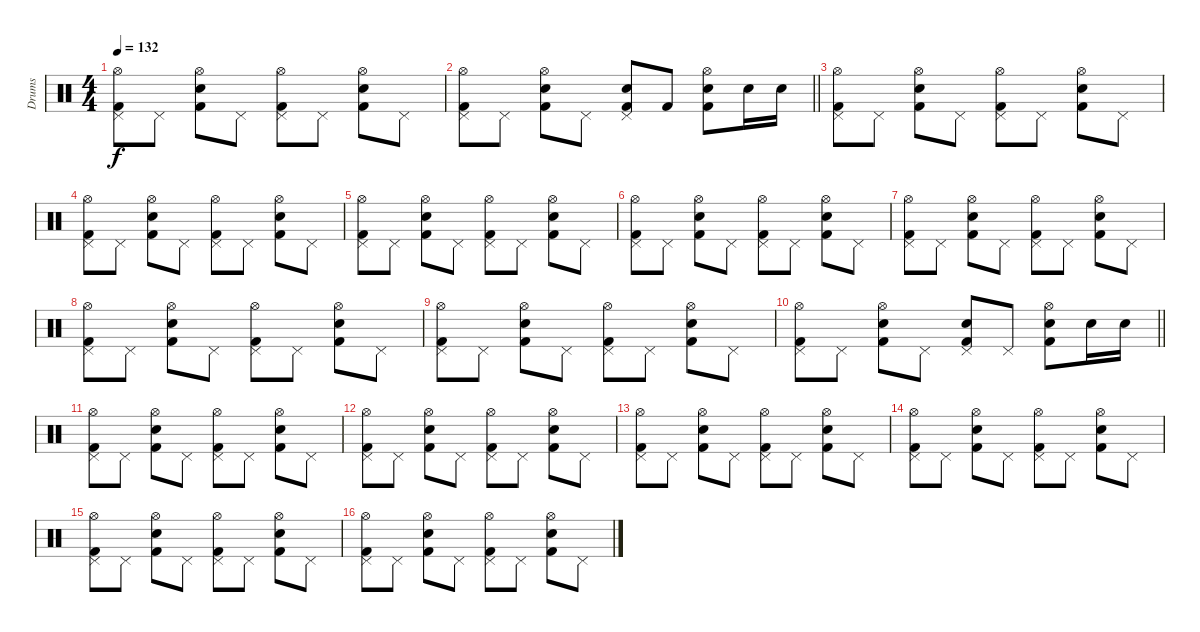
\track ("Drums" "Drums") {instrument percussion}
\staff {score}
\articulation defaults
\ts (4 4)
\tempo 132
\clef neutral
\ks c
("Hi-Hat (open)" "Pedal Hi-Hat (hit)" "Kick (hit) 2").8{dy f} "Pedal Hi-Hat (hit)".8 ("Electric Snare (hit)" "Hi-Hat (open)" "Kick (hit) 2").8 "Pedal Hi-Hat (hit)".8 ("Hi-Hat (open)" "Pedal Hi-Hat (hit)" "Kick (hit) 2").8 "Pedal Hi-Hat (hit)".8 ("Electric Snare (hit)" "Hi-Hat (open)" "Kick (hit) 2").8 "Pedal Hi-Hat (hit)".8 |
\barLineRight lightlight
("Hi-Hat (open)" "Pedal Hi-Hat (hit)" "Kick (hit) 2").8 "Pedal Hi-Hat (hit)".8 ("Electric Snare (hit)" "Hi-Hat (open)" "Kick (hit) 2").8 "Pedal Hi-Hat (hit)".8 ("Electric Snare (hit)" "Pedal Hi-Hat (hit)" "Kick (hit) 2").8 "Kick (hit) 2".8 ("Electric Snare (hit)" "Hi-Hat (open)" "Kick (hit) 2").8 "Electric Snare (hit)".16 "Electric Snare (hit)".16 |
\section ("" "")
("Hi-Hat (open)" "Pedal Hi-Hat (hit)" "Kick (hit) 2").8 "Pedal Hi-Hat (hit)".8 ("Electric Snare (hit)" "Hi-Hat (open)" "Kick (hit) 2").8 "Pedal Hi-Hat (hit)".8 ("Hi-Hat (open)" "Pedal Hi-Hat (hit)" "Kick (hit) 2").8 "Pedal Hi-Hat (hit)".8 ("Electric Snare (hit)" "Hi-Hat (open)" "Kick (hit) 2").8 "Pedal Hi-Hat (hit)".8 |
("Hi-Hat (open)" "Pedal Hi-Hat (hit)" "Kick (hit) 2").8 "Pedal Hi-Hat (hit)".8 ("Electric Snare (hit)" "Hi-Hat (open)" "Kick (hit) 2").8 "Pedal Hi-Hat (hit)".8 ("Hi-Hat (open)" "Pedal Hi-Hat (hit)" "Kick (hit) 2").8 "Pedal Hi-Hat (hit)".8 ("Electric Snare (hit)" "Hi-Hat (open)" "Kick (hit) 2").8 "Pedal Hi-Hat (hit)".8 |
("Hi-Hat (open)" "Pedal Hi-Hat (hit)" "Kick (hit) 2").8 "Pedal Hi-Hat (hit)".8 ("Electric Snare (hit)" "Hi-Hat (open)" "Kick (hit) 2").8 "Pedal Hi-Hat (hit)".8 ("Hi-Hat (open)" "Pedal Hi-Hat (hit)" "Kick (hit) 2").8 "Pedal Hi-Hat (hit)".8 ("Electric Snare (hit)" "Hi-Hat (open)" "Kick (hit) 2").8 "Pedal Hi-Hat (hit)".8 |
("Hi-Hat (open)" "Pedal Hi-Hat (hit)" "Kick (hit) 2").8 "Pedal Hi-Hat (hit)".8 ("Electric Snare (hit)" "Hi-Hat (open)" "Kick (hit) 2").8 "Pedal Hi-Hat (hit)".8 ("Hi-Hat (open)" "Pedal Hi-Hat (hit)" "Kick (hit) 2").8 "Pedal Hi-Hat (hit)".8 ("Electric Snare (hit)" "Hi-Hat (open)" "Kick (hit) 2").8 "Pedal Hi-Hat (hit)".8 |
("Hi-Hat (open)" "Pedal Hi-Hat (hit)" "Kick (hit) 2").8 "Pedal Hi-Hat (hit)".8 ("Electric Snare (hit)" "Hi-Hat (open)" "Kick (hit) 2").8 "Pedal Hi-Hat (hit)".8 ("Hi-Hat (open)" "Pedal Hi-Hat (hit)" "Kick (hit) 2").8 "Pedal Hi-Hat (hit)".8 ("Electric Snare (hit)" "Hi-Hat (open)" "Kick (hit) 2").8 "Pedal Hi-Hat (hit)".8 |
("Hi-Hat (open)" "Pedal Hi-Hat (hit)" "Kick (hit) 2").8 "Pedal Hi-Hat (hit)".8 ("Electric Snare (hit)" "Hi-Hat (open)" "Kick (hit) 2").8 "Pedal Hi-Hat (hit)".8 ("Hi-Hat (open)" "Pedal Hi-Hat (hit)" "Kick (hit) 2").8 "Pedal Hi-Hat (hit)".8 ("Electric Snare (hit)" "Hi-Hat (open)" "Kick (hit) 2").8 "Pedal Hi-Hat (hit)".8 |
("Hi-Hat (open)" "Pedal Hi-Hat (hit)" "Kick (hit) 2").8 "Pedal Hi-Hat (hit)".8 ("Electric Snare (hit)" "Hi-Hat (open)" "Kick (hit) 2").8 "Pedal Hi-Hat (hit)".8 ("Hi-Hat (open)" "Pedal Hi-Hat (hit)" "Kick (hit) 2").8 "Pedal Hi-Hat (hit)".8 ("Electric Snare (hit)" "Hi-Hat (open)" "Kick (hit) 2").8 "Pedal Hi-Hat (hit)".8 |
\barLineRight lightlight
("Hi-Hat (open)" "Pedal Hi-Hat (hit)" "Kick (hit) 2").8 "Pedal Hi-Hat (hit)".8 ("Electric Snare (hit)" "Hi-Hat (open)" "Kick (hit) 2").8 "Pedal Hi-Hat (hit)".8 ("Electric Snare (hit)" "Pedal Hi-Hat (hit)" "Kick (hit) 2").8 "Pedal Hi-Hat (hit)".8 ("Electric Snare (hit)" "Hi-Hat (open)" "Kick (hit) 2").8 "Electric Snare (hit)".16 "Electric Snare (hit)".16 |
\section ("" "")
("Hi-Hat (open)" "Pedal Hi-Hat (hit)" "Kick (hit) 2").8 "Pedal Hi-Hat (hit)".8 ("Electric Snare (hit)" "Hi-Hat (open)" "Kick (hit) 2").8 "Pedal Hi-Hat (hit)".8 ("Hi-Hat (open)" "Pedal Hi-Hat (hit)" "Kick (hit) 2").8 "Pedal Hi-Hat (hit)".8 ("Electric Snare (hit)" "Hi-Hat (open)" "Kick (hit) 2").8 "Pedal Hi-Hat (hit)".8 |
("Hi-Hat (open)" "Pedal Hi-Hat (hit)" "Kick (hit) 2").8 "Pedal Hi-Hat (hit)".8 ("Electric Snare (hit)" "Hi-Hat (open)" "Kick (hit) 2").8 "Pedal Hi-Hat (hit)".8 ("Hi-Hat (open)" "Pedal Hi-Hat (hit)" "Kick (hit) 2").8 "Pedal Hi-Hat (hit)".8 ("Electric Snare (hit)" "Hi-Hat (open)" "Kick (hit) 2").8 "Pedal Hi-Hat (hit)".8 |
("Hi-Hat (open)" "Pedal Hi-Hat (hit)" "Kick (hit) 2").8 "Pedal Hi-Hat (hit)".8 ("Electric Snare (hit)" "Hi-Hat (open)" "Kick (hit) 2").8 "Pedal Hi-Hat (hit)".8 ("Hi-Hat (open)" "Pedal Hi-Hat (hit)" "Kick (hit) 2").8 "Pedal Hi-Hat (hit)".8 ("Electric Snare (hit)" "Hi-Hat (open)" "Kick (hit) 2").8 "Pedal Hi-Hat (hit)".8 |
("Hi-Hat (open)" "Pedal Hi-Hat (hit)" "Kick (hit) 2").8 "Pedal Hi-Hat (hit)".8 ("Electric Snare (hit)" "Hi-Hat (open)" "Kick (hit) 2").8 "Pedal Hi-Hat (hit)".8 ("Hi-Hat (open)" "Pedal Hi-Hat (hit)" "Kick (hit) 2").8 "Pedal Hi-Hat (hit)".8 ("Electric Snare (hit)" "Hi-Hat (open)" "Kick (hit) 2").8 "Pedal Hi-Hat (hit)".8 |
("Hi-Hat (open)" "Pedal Hi-Hat (hit)" "Kick (hit) 2").8 "Pedal Hi-Hat (hit)".8 ("Electric Snare (hit)" "Hi-Hat (open)" "Kick (hit) 2").8 "Pedal Hi-Hat (hit)".8 ("Hi-Hat (open)" "Pedal Hi-Hat (hit)" "Kick (hit) 2").8 "Pedal Hi-Hat (hit)".8 ("Electric Snare (hit)" "Hi-Hat (open)" "Kick (hit) 2").8 "Pedal Hi-Hat (hit)".8 |
("Hi-Hat (open)" "Pedal Hi-Hat (hit)" "Kick (hit) 2").8 "Pedal Hi-Hat (hit)".8 ("Electric Snare (hit)" "Hi-Hat (open)" "Kick (hit) 2").8 "Pedal Hi-Hat (hit)".8 ("Hi-Hat (open)" "Pedal Hi-Hat (hit)" "Kick (hit) 2").8 "Pedal Hi-Hat (hit)".8 ("Electric Snare (hit)" "Hi-Hat (open)" "Kick (hit) 2").8 "Pedal Hi-Hat (hit)".8
